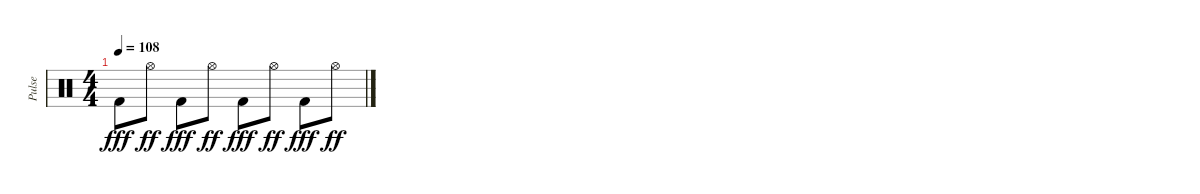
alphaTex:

\track ("Pulse" "Pulse") {instrument percussion}
\staff {score}
\articulation defaults
\ts (4 4)
\tempo 108
\clef neutral
\ks c "Kick (hit) 2".8{dy fff} "Hi-Hat (open)".8{dy ff} "Kick (hit) 2".8{dy fff} "Hi-Hat (open)".8{dy ff} "Kick (hit) 2".8{dy fff} "Hi-Hat (open)".8{dy ff} "Kick (hit) 2".8{dy fff} "Hi-Hat (open)".8{dy ff}
